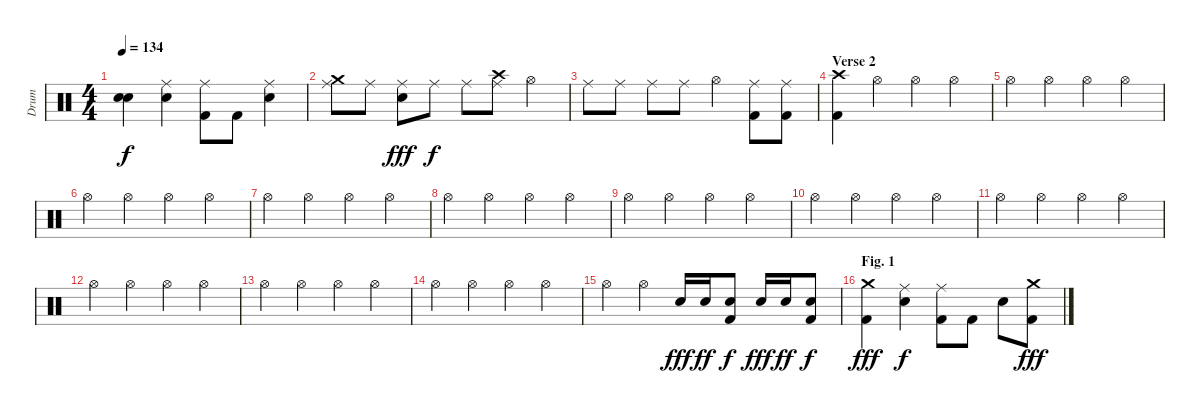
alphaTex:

\track ("Drum" "Drum") {instrument percussion}
\staff {score}
\articulation defaults
\ts (4 4)
\tempo 134
\clef neutral
\ks c
("Snare (hit)"{t} "Snare (hit)"{t}).4{dy f} ("Ride (middle)" "Snare (hit) 2").4 ("Ride (middle)" "Kick (hit) 2").8 "Kick (hit) 2".8 ("Ride (middle)" "Snare (hit) 2").4 |
("Crash medium (hit)" "Ride (middle)").8 "Ride (middle)".8 ("Ride (middle)" "Snare (hit) 2").8{dy fff} "Ride (middle)".8{dy f} "Ride (middle)".8 ("Crash high (hit)" "Ride (middle)").8 "Hi-Hat (open)".4 |
"Ride (middle)".8 "Ride (middle)".8 "Ride (middle)".8 "Ride (middle)".8 "Hi-Hat (open)".4 ("Ride (middle)" "Kick (hit) 2").8 ("Ride (middle)" "Kick (hit) 2").8 |
\section ("" "Verse 2")
("Crash high (hit)" "Kick (hit) 2").4 "Hi-Hat (open)".4 "Hi-Hat (open)".4 "Hi-Hat (open)".4 |
"Hi-Hat (open)".4 "Hi-Hat (open)".4 "Hi-Hat (open)".4 "Hi-Hat (open)".4 |
"Hi-Hat (open)".4 "Hi-Hat (open)".4 "Hi-Hat (open)".4 "Hi-Hat (open)".4 |
"Hi-Hat (open)".4 "Hi-Hat (open)".4 "Hi-Hat (open)".4 "Hi-Hat (open)".4 |
"Hi-Hat (open)".4 "Hi-Hat (open)".4 "Hi-Hat (open)".4 "Hi-Hat (open)".4 |
"Hi-Hat (open)".4 "Hi-Hat (open)".4 "Hi-Hat (open)".4 "Hi-Hat (open)".4 |
"Hi-Hat (open)".4 "Hi-Hat (open)".4 "Hi-Hat (open)".4 "Hi-Hat (open)".4 |
"Hi-Hat (open)".4 "Hi-Hat (open)".4 "Hi-Hat (open)".4 "Hi-Hat (open)".4 |
"Hi-Hat (open)".4 "Hi-Hat (open)".4 "Hi-Hat (open)".4 "Hi-Hat (open)".4 |
"Hi-Hat (open)".4 "Hi-Hat (open)".4 "Hi-Hat (open)".4 "Hi-Hat (open)".4 |
"Hi-Hat (open)".4 "Hi-Hat (open)".4 "Hi-Hat (open)".4 "Hi-Hat (open)".4 |
"Hi-Hat (open)".4 "Hi-Hat (open)".4 "Snare (hit) 2".16{dy fff} "Snare (hit) 2".16{dy ff} ("Snare (hit) 2" "Kick (hit) 2").8{dy f} "Snare (hit) 2".16{dy fff} "Snare (hit) 2".16{dy ff} ("Snare (hit) 2" "Kick (hit) 2").8{dy f} |
\section ("" "Fig. 1")
("Crash medium (hit)" "Kick (hit) 2").4{dy fff} ("Ride (middle)" "Snare (hit) 2").4{dy f} ("Ride (middle)" "Kick (hit) 2").8 "Kick (hit) 2".8 "Snare (hit) 2".8 ("Crash medium (hit)" "Kick (hit) 2").8{dy fff}
